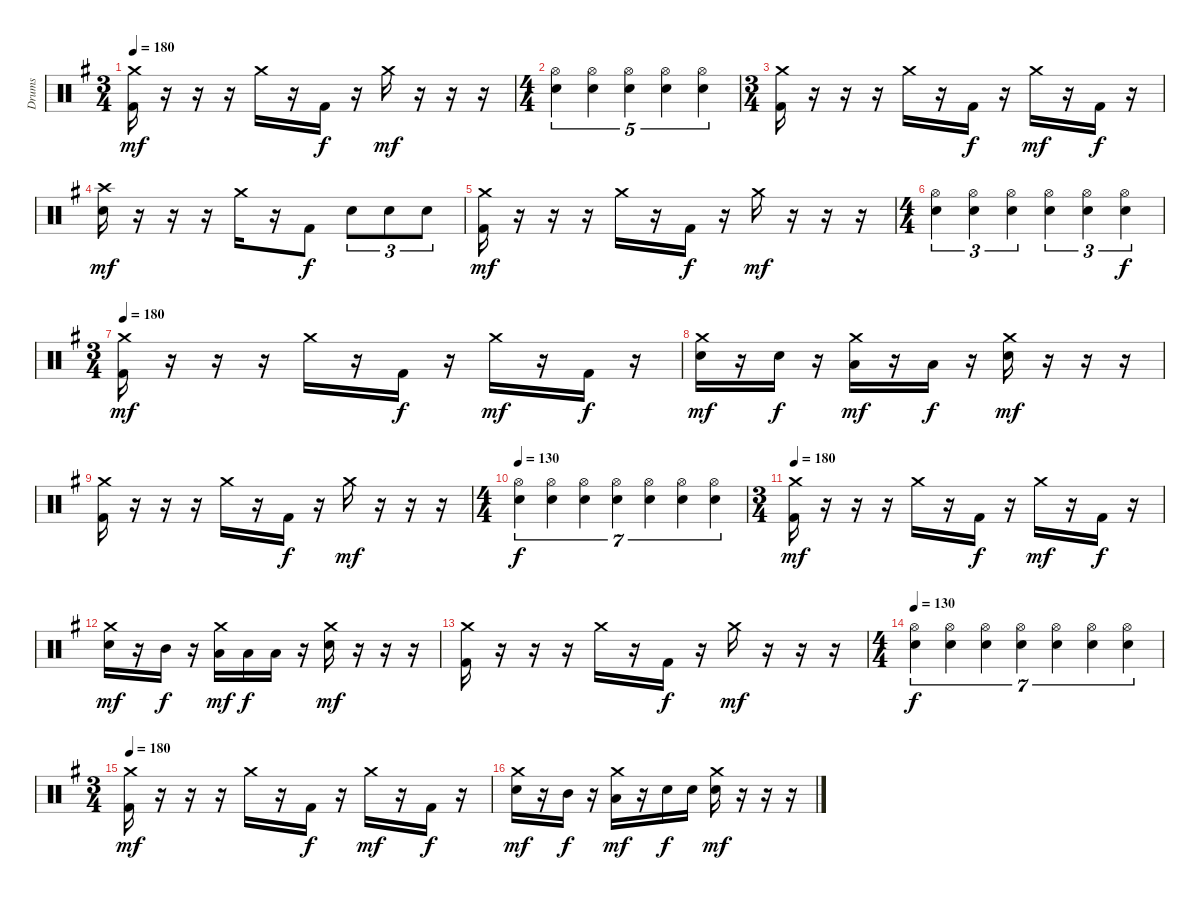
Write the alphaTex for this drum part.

\track ("Drums" "Drums") {instrument percussion}
\staff {score}
\articulation defaults
\ts (3 4)
\tempo 180
\clef neutral
\ks g
("Crash medium (hit)" "Kick (hit) 2").16{dy mf} r.16 r.16 r.16 "Crash medium (hit)".16 r.16 "Kick (hit) 2".16{dy f} r.16 "Crash medium (hit)".16{dy mf} r.16 r.16 r.16 |
\ts (4 4)
("Hi-Hat (open)" "Snare (hit) 2").4{tu (5 4)} ("Hi-Hat (open)" "Snare (hit) 2").4{tu (5 4)} ("Hi-Hat (open)" "Snare (hit) 2").4{tu (5 4)} ("Hi-Hat (open)" "Snare (hit) 2").4{tu (5 4)} ("Hi-Hat (open)" "Snare (hit) 2").4{tu (5 4)} |
\ts (3 4)
("Crash medium (hit)" "Kick (hit) 2").16 r.16 r.16 r.16 "Crash medium (hit)".16 r.16 "Kick (hit) 2".16{dy f} r.16 "Crash medium (hit)".16{dy mf} r.16 "Kick (hit) 2".16{dy f} r.16 |
("Crash high (hit)" "Snare (hit) 2").16{dy mf} r.16 r.16 r.16 "Crash medium (hit)".16 r.16 "Kick (hit) 2".8{dy f} "Snare (hit) 2".8{tu (3 2)} "Snare (hit) 2".8{tu (3 2)} "Snare (hit) 2".8{tu (3 2)} |
("Crash medium (hit)" "Kick (hit) 2").16{dy mf} r.16 r.16 r.16 "Crash medium (hit)".16 r.16 "Kick (hit) 2".16{dy f} r.16 "Crash medium (hit)".16{dy mf} r.16 r.16 r.16 |
\ts (4 4)
("Hi-Hat (open)" "Snare (hit) 2").4{tu (3 2)} ("Hi-Hat (open)" "Snare (hit) 2").4{tu (3 2)} ("Hi-Hat (open)" "Snare (hit) 2").4{tu (3 2)} ("Hi-Hat (open)" "Snare (hit) 2").4{tu (3 2)} ("Hi-Hat (open)" "Snare (hit) 2").4{tu (3 2)} ("Hi-Hat (open)" "Snare (hit) 2").4{tu (3 2) dy f} |
\ts (3 4)
\tempo 180
("Crash medium (hit)" "Kick (hit) 2").16{dy mf} r.16 r.16 r.16 "Crash medium (hit)".16 r.16 "Kick (hit) 2".16{dy f} r.16 "Crash medium (hit)".16{dy mf} r.16 "Kick (hit) 2".16{dy f} r.16 |
("Crash medium (hit)" "Snare (hit) 2").16{dy mf} r.16 "Snare (hit) 2".16{dy f} r.16 ("Crash medium (hit)" "Low Tom (hit)").16{dy mf} r.16 "Low Tom (hit)".16{dy f} r.16 ("Crash medium (hit)" "Snare (hit) 2").16{dy mf} r.16 r.16 r.16 |
("Crash medium (hit)" "Kick (hit) 2").16 r.16 r.16 r.16 "Crash medium (hit)".16 r.16 "Kick (hit) 2".16{dy f} r.16 "Crash medium (hit)".16{dy mf} r.16 r.16 r.16 |
\ts (4 4)
\tempo 130
("Hi-Hat (open)" "Snare (hit) 2").4{tu (7 4) dy f} ("Hi-Hat (open)" "Snare (hit) 2").4{tu (7 4)} ("Hi-Hat (open)" "Snare (hit) 2").4{tu (7 4)} ("Hi-Hat (open)" "Snare (hit) 2").4{tu (7 4)} ("Hi-Hat (open)" "Snare (hit) 2").4{tu (7 4)} ("Hi-Hat (open)" "Snare (hit) 2").4{tu (7 4)} ("Hi-Hat (open)" "Snare (hit) 2").4{tu (7 4)} |
\ts (3 4)
\tempo 180
("Crash medium (hit)" "Kick (hit) 2").16{dy mf} r.16 r.16 r.16 "Crash medium (hit)".16 r.16 "Kick (hit) 2".16{dy f} r.16 "Crash medium (hit)".16{dy mf} r.16 "Kick (hit) 2".16{dy f} r.16 |
("Crash medium (hit)" "Snare (hit) 2").16{dy mf} r.16 "Mid Tom (hit)".16{dy f} r.16 ("Crash medium (hit)" "Low Tom (hit)").16{dy mf} "Low Tom (hit)".16{dy f} "Low Tom (hit)".16 r.16 ("Crash medium (hit)" "Snare (hit) 2").16{dy mf} r.16 r.16 r.16 |
("Crash medium (hit)" "Kick (hit) 2").16 r.16 r.16 r.16 "Crash medium (hit)".16 r.16 "Kick (hit) 2".16{dy f} r.16 "Crash medium (hit)".16{dy mf} r.16 r.16 r.16 |
\ts (4 4)
\tempo 130
("Hi-Hat (open)" "Snare (hit) 2").4{tu (7 4) dy f} ("Hi-Hat (open)" "Snare (hit) 2").4{tu (7 4)} ("Hi-Hat (open)" "Snare (hit) 2").4{tu (7 4)} ("Hi-Hat (open)" "Snare (hit) 2").4{tu (7 4)} ("Hi-Hat (open)" "Snare (hit) 2").4{tu (7 4)} ("Hi-Hat (open)" "Snare (hit) 2").4{tu (7 4)} ("Hi-Hat (open)" "Snare (hit) 2").4{tu (7 4)} |
\ts (3 4)
\tempo 180
("Crash medium (hit)" "Kick (hit) 2").16{dy mf} r.16 r.16 r.16 "Crash medium (hit)".16 r.16 "Kick (hit) 2".16{dy f} r.16 "Crash medium (hit)".16{dy mf} r.16 "Kick (hit) 2".16{dy f} r.16 |
("Crash medium (hit)" "Snare (hit) 2").16{dy mf} r.16 "Mid Tom (hit)".16{dy f} r.16 ("Crash medium (hit)" "Low Tom (hit)").16{dy mf} r.16 "Snare (hit) 2".16{dy f} "Snare (hit) 2".16 ("Crash medium (hit)" "Snare (hit) 2").16{dy mf} r.16 r.16 r.16
